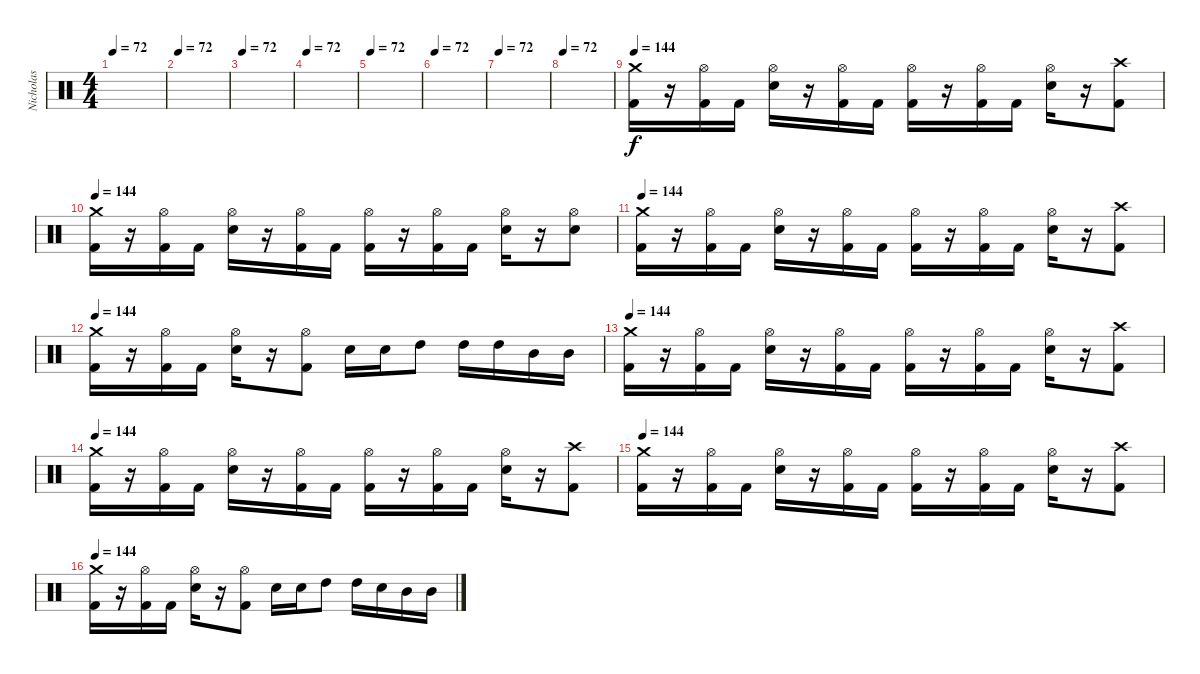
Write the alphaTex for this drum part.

\track ("Nicholas" "Nicholas") {instrument percussion}
\staff {score}
\articulation defaults
\ts (4 4)
\tempo 72
\clef neutral
\ks c
|
\tempo 72
|
\tempo 72
|
\tempo 72
|
\tempo 72
|
\tempo 72
|
\tempo 72
|
\tempo 72
|
\tempo 144
("Crash medium (hit)" "Kick (hit) 2").16 r.16 ("Hi-Hat (open)" "Kick (hit) 2").16 "Kick (hit) 2".16 ("Hi-Hat (open)" "Snare (hit) 2").16 r.16 ("Hi-Hat (open)" "Kick (hit) 2").16 "Kick (hit) 2".16 ("Hi-Hat (open)" "Kick (hit) 2").16 r.16 ("Hi-Hat (open)" "Kick (hit) 2").16 "Kick (hit) 2".16 ("Hi-Hat (open)" "Snare (hit) 2").16 r.16 ("Crash high (hit)" "Kick (hit) 2").8 |
\tempo 144
("Crash medium (hit)" "Kick (hit) 2").16 r.16 ("Hi-Hat (open)" "Kick (hit) 2").16 "Kick (hit) 2".16 ("Hi-Hat (open)" "Snare (hit) 2").16 r.16 ("Hi-Hat (open)" "Kick (hit) 2").16 "Kick (hit) 2".16 ("Hi-Hat (open)" "Kick (hit) 2").16 r.16 ("Hi-Hat (open)" "Kick (hit) 2").16 "Kick (hit) 2".16 ("Hi-Hat (open)" "Snare (hit) 2").16 r.16 ("Hi-Hat (open)" "Snare (hit) 2").8 |
\tempo 144
("Crash medium (hit)" "Kick (hit) 2").16 r.16 ("Hi-Hat (open)" "Kick (hit) 2").16 "Kick (hit) 2".16 ("Hi-Hat (open)" "Snare (hit) 2").16 r.16 ("Hi-Hat (open)" "Kick (hit) 2").16 "Kick (hit) 2".16 ("Hi-Hat (open)" "Kick (hit) 2").16 r.16 ("Hi-Hat (open)" "Kick (hit) 2").16 "Kick (hit) 2".16 ("Hi-Hat (open)" "Snare (hit) 2").16 r.16 ("Crash high (hit)" "Kick (hit) 2").8 |
\tempo 144
("Crash medium (hit)" "Kick (hit) 2").16 r.16 ("Hi-Hat (open)" "Kick (hit) 2").16 "Kick (hit) 2".16 ("Hi-Hat (open)" "Snare (hit) 2").16 r.16 ("Hi-Hat (open)" "Kick (hit) 2").8 "Snare (hit) 2".16 "Snare (hit) 2".16 "High Tom (hit)".8 "High Tom (hit)".16 "High Tom (hit)".16 "Mid Tom (hit)".16 "Mid Tom (hit)".16 |
\tempo 144
("Crash medium (hit)" "Kick (hit) 2").16 r.16 ("Hi-Hat (open)" "Kick (hit) 2").16 "Kick (hit) 2".16 ("Hi-Hat (open)" "Snare (hit) 2").16 r.16 ("Hi-Hat (open)" "Kick (hit) 2").16 "Kick (hit) 2".16 ("Hi-Hat (open)" "Kick (hit) 2").16 r.16 ("Hi-Hat (open)" "Kick (hit) 2").16 "Kick (hit) 2".16 ("Hi-Hat (open)" "Snare (hit) 2").16 r.16 ("Crash high (hit)" "Kick (hit) 2").8 |
\tempo 144
("Crash medium (hit)" "Kick (hit) 2").16 r.16 ("Hi-Hat (open)" "Kick (hit) 2").16 "Kick (hit) 2".16 ("Hi-Hat (open)" "Snare (hit) 2").16 r.16 ("Hi-Hat (open)" "Kick (hit) 2").16 "Kick (hit) 2".16 ("Hi-Hat (open)" "Kick (hit) 2").16 r.16 ("Hi-Hat (open)" "Kick (hit) 2").16 "Kick (hit) 2".16 ("Hi-Hat (open)" "Snare (hit) 2").16 r.16 ("Crash high (hit)" "Kick (hit) 2").8 |
\tempo 144
("Crash medium (hit)" "Kick (hit) 2").16 r.16 ("Hi-Hat (open)" "Kick (hit) 2").16 "Kick (hit) 2".16 ("Hi-Hat (open)" "Snare (hit) 2").16 r.16 ("Hi-Hat (open)" "Kick (hit) 2").16 "Kick (hit) 2".16 ("Hi-Hat (open)" "Kick (hit) 2").16 r.16 ("Hi-Hat (open)" "Kick (hit) 2").16 "Kick (hit) 2".16 ("Hi-Hat (open)" "Snare (hit) 2").16 r.16 ("Crash high (hit)" "Kick (hit) 2").8 |
\tempo 144
("Crash medium (hit)" "Kick (hit) 2").16 r.16 ("Hi-Hat (open)" "Kick (hit) 2").16 "Kick (hit) 2".16 ("Hi-Hat (open)" "Snare (hit) 2").16 r.16 ("Hi-Hat (open)" "Kick (hit) 2").8 "Snare (hit) 2".16 "Snare (hit) 2".16 "High Tom (hit)".8 "High Tom (hit)".16 "Snare (hit) 2".16 "Mid Tom (hit)".16 "Mid Tom (hit)".16
